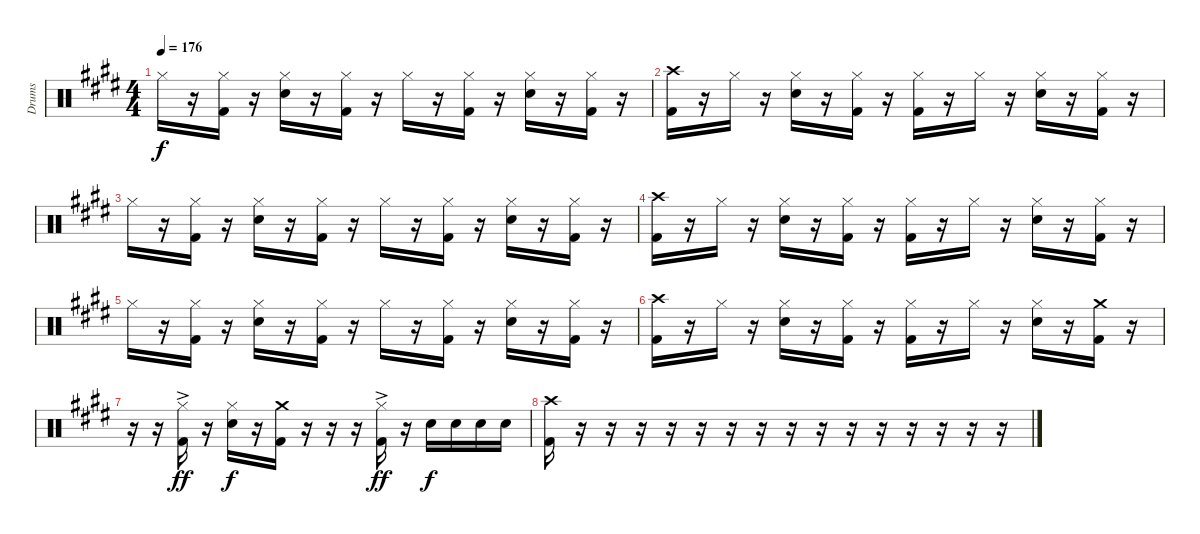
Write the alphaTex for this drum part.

\track ("Drums" "Drums") {instrument percussion}
\staff {score}
\articulation defaults
\ts (4 4)
\tempo 176
\clef neutral
\ks e "Hi-Hat (closed)".16{dy f}
r.16 ("Hi-Hat (closed)" "Kick (hit) 2").16 r.16 ("Hi-Hat (closed)" "Electric Snare (hit)").16 r.16 ("Hi-Hat (closed)" "Kick (hit) 2").16 r.16 "Hi-Hat (closed)".16 r.16 ("Hi-Hat (closed)" "Kick (hit) 2").16 r.16 ("Hi-Hat (closed)" "Electric Snare (hit)").16 r.16 ("Hi-Hat (closed)" "Kick (hit) 2").16 r.16 |
("Crash high (hit)" "Kick (hit) 2").16 r.16 "Hi-Hat (closed)".16 r.16 ("Hi-Hat (closed)" "Electric Snare (hit)").16 r.16 ("Hi-Hat (closed)" "Kick (hit) 2").16 r.16 ("Hi-Hat (closed)" "Kick (hit) 2").16 r.16 "Hi-Hat (closed)".16 r.16 ("Hi-Hat (closed)" "Electric Snare (hit)").16 r.16 ("Hi-Hat (closed)" "Kick (hit) 2").16 r.16 |
"Hi-Hat (closed)".16 r.16 ("Hi-Hat (closed)" "Kick (hit) 2").16 r.16 ("Hi-Hat (closed)" "Electric Snare (hit)").16 r.16 ("Hi-Hat (closed)" "Kick (hit) 2").16 r.16 "Hi-Hat (closed)".16 r.16 ("Hi-Hat (closed)" "Kick (hit) 2").16 r.16 ("Hi-Hat (closed)" "Electric Snare (hit)").16 r.16 ("Hi-Hat (closed)" "Kick (hit) 2").16 r.16 |
("Crash high (hit)" "Kick (hit) 2").16 r.16 "Hi-Hat (closed)".16 r.16 ("Hi-Hat (closed)" "Electric Snare (hit)").16 r.16 ("Hi-Hat (closed)" "Kick (hit) 2").16 r.16 ("Hi-Hat (closed)" "Kick (hit) 2").16 r.16 "Hi-Hat (closed)".16 r.16 ("Hi-Hat (closed)" "Electric Snare (hit)").16 r.16 ("Hi-Hat (closed)" "Kick (hit) 2").16 r.16 |
"Hi-Hat (closed)".16 r.16 ("Hi-Hat (closed)" "Kick (hit) 2").16 r.16 ("Hi-Hat (closed)" "Electric Snare (hit)").16 r.16 ("Hi-Hat (closed)" "Kick (hit) 2").16 r.16 "Hi-Hat (closed)".16 r.16 ("Hi-Hat (closed)" "Kick (hit) 2").16 r.16 ("Hi-Hat (closed)" "Electric Snare (hit)").16 r.16 ("Hi-Hat (closed)" "Kick (hit) 2").16 r.16 |
("Crash high (hit)" "Kick (hit) 2").16 r.16 "Hi-Hat (closed)".16 r.16 ("Hi-Hat (closed)" "Electric Snare (hit)").16 r.16 ("Hi-Hat (closed)" "Kick (hit) 2").16 r.16 ("Hi-Hat (closed)" "Kick (hit) 2").16 r.16 "Hi-Hat (closed)".16 r.16 ("Hi-Hat (closed)" "Electric Snare (hit)").16 r.16 ("Crash medium (hit)" "Kick (hit) 2").16 r.16 |
r.16 r.16 ("Hi-Hat (closed)"{ac} "Kick (hit) 2").16{dy ff} r.16 ("Hi-Hat (closed)" "Electric Snare (hit)").16{dy f} r.16 ("Crash medium (hit)" "Kick (hit) 2").16 r.16 r.16 r.16 ("Hi-Hat (closed)"{ac} "Kick (hit) 2").16{dy ff} r.16 "Electric Snare (hit)".16{dy f} "Electric Snare (hit)".16 "Electric Snare (hit)".16 "Electric Snare (hit)".16 |
("Crash high (hit)" "Kick (hit) 2").16 r.16 r.16 r.16 r.16 r.16 r.16 r.16 r.16 r.16 r.16 r.16 r.16 r.16 r.16 r.16
